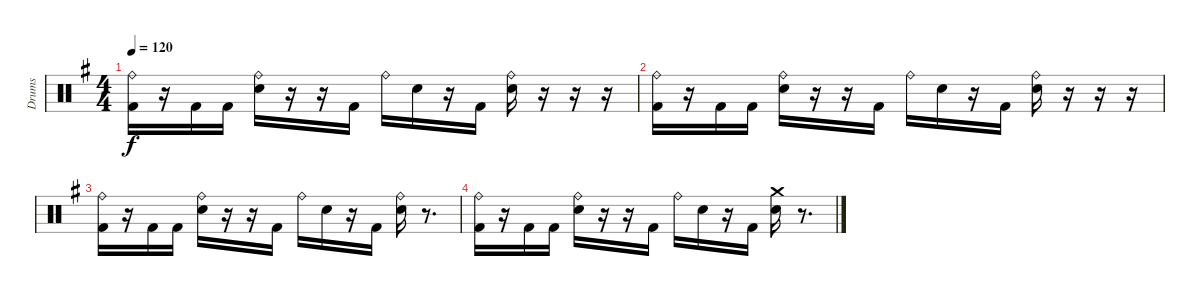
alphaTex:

\track ("Drums" "Drums") {instrument percussion}
\staff {score}
\articulation defaults
\ts (4 4)
\tempo 120
\clef neutral
\ks g
("Ride (bell)" "Kick (hit) 2").16{dy f} r.16 "Kick (hit) 2".16 "Kick (hit) 2".16 ("Ride (bell)" "Electric Snare (hit)").16 r.16 r.16 "Kick (hit) 2".16 "Ride (bell)".16 "Electric Snare (hit)".16 r.16 "Kick (hit) 2".16 ("Ride (bell)" "Electric Snare (hit)").16 r.16 r.16 r.16 |
("Ride (bell)" "Kick (hit) 2").16 r.16 "Kick (hit) 2".16 "Kick (hit) 2".16 ("Ride (bell)" "Electric Snare (hit)").16 r.16 r.16 "Kick (hit) 2".16 "Ride (bell)".16 "Electric Snare (hit)".16 r.16 "Kick (hit) 2".16 ("Ride (bell)" "Electric Snare (hit)").16 r.16 r.16 r.16 |
("Ride (bell)" "Kick (hit) 2").16 r.16 "Kick (hit) 2".16 "Kick (hit) 2".16 ("Ride (bell)" "Electric Snare (hit)").16 r.16 r.16 "Kick (hit) 2".16 "Ride (bell)".16 "Electric Snare (hit)".16 r.16 "Kick (hit) 2".16 ("Ride (bell)" "Electric Snare (hit)").16 r.8{d} |
("Ride (bell)" "Kick (hit) 2").16 r.16 "Kick (hit) 2".16 "Kick (hit) 2".16 ("Ride (bell)" "Electric Snare (hit)").16 r.16 r.16 "Kick (hit) 2".16 "Ride (bell)".16 "Electric Snare (hit)".16 r.16 "Kick (hit) 2".16 ("Crash medium (hit)" "Electric Snare (hit)").16 r.8{d}
